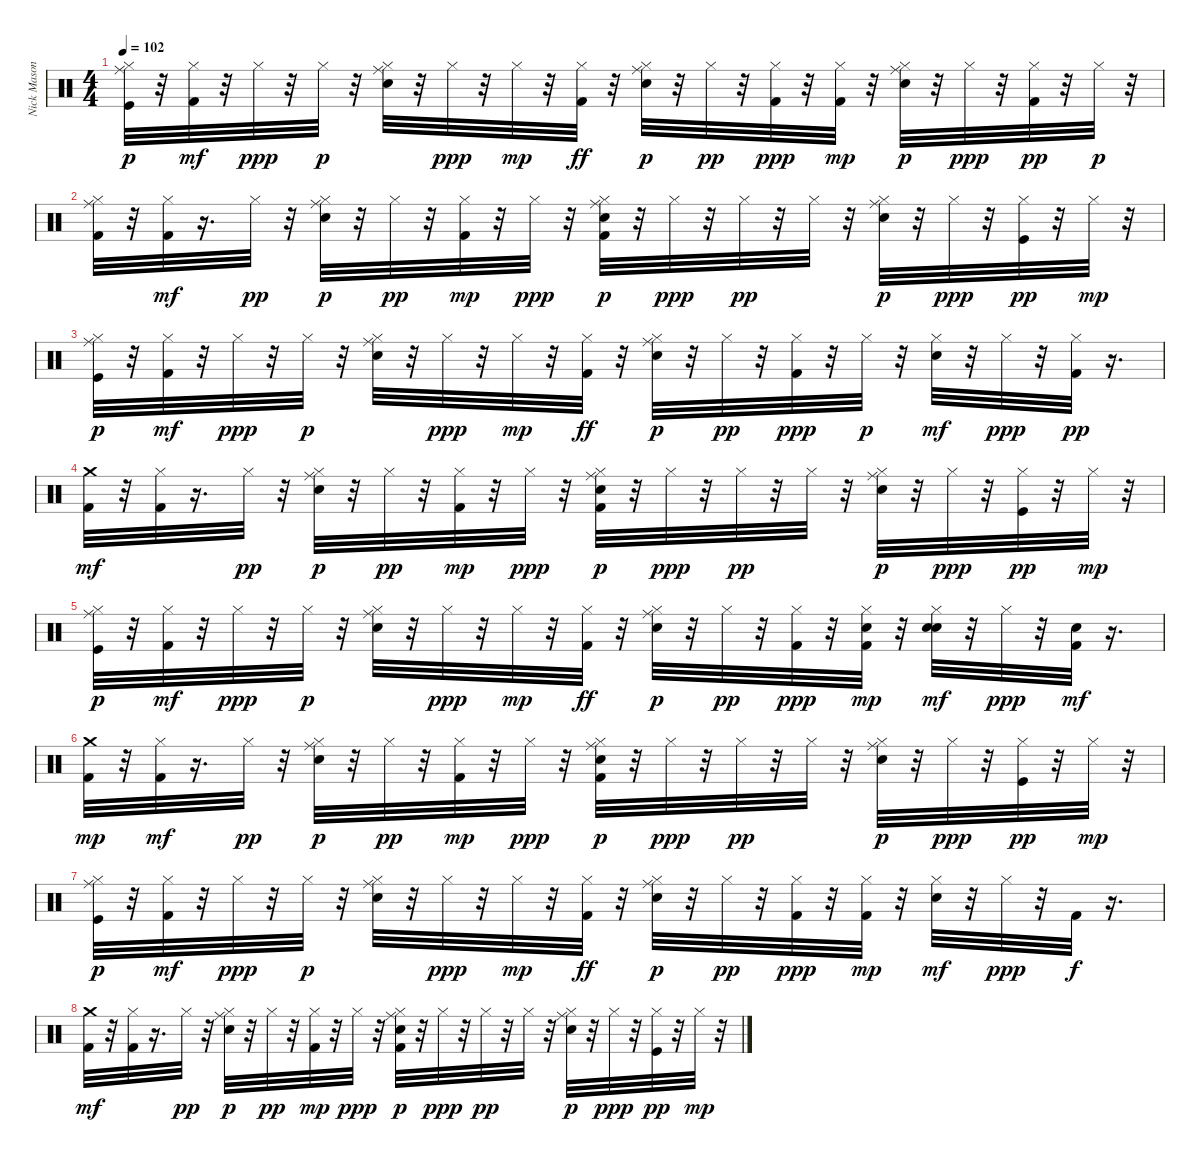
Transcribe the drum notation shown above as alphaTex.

\track ("Nick Mason / Gary Wallis" "Nick Mason") {instrument percussion}
\staff {score}
\articulation defaults
\ts (4 4)
\tempo 102
\clef neutral
\ks c
("Kick (hit)" "Hi-Hat (closed)" "Ride (middle)").32{dy p} r.32 ("Hi-Hat (closed)" "Kick (hit) 2").32{dy mf} r.32 "Hi-Hat (closed)".32{dy ppp} r.32 "Hi-Hat (closed)".32{dy p} r.32 ("Snare (hit) 2" "Hi-Hat (closed)" "Ride (middle)").32 r.32 "Hi-Hat (closed)".32{dy ppp} r.32 "Hi-Hat (closed)".32{dy mp} r.32 ("Hi-Hat (closed)" "Kick (hit) 2").32{dy ff} r.32 ("Electric Snare (hit)" "Hi-Hat (closed)" "Ride (middle)").32{dy p} r.32 "Hi-Hat (closed)".32{dy pp} r.32 ("Hi-Hat (closed)" "Kick (hit) 2").32{dy ppp} r.32 ("Hi-Hat (closed)" "Kick (hit) 2").32{dy mp} r.32 ("Snare (hit) 2" "Hi-Hat (closed)" "Ride (middle)").32{dy p} r.32 "Hi-Hat (closed)".32{dy ppp} r.32 ("Kick (hit) 2" "Hi-Hat (closed)").32{dy pp} r.32 "Hi-Hat (closed)".32{dy p} r.32 |
("Kick (hit) 2" "Hi-Hat (closed)" "Ride (middle)").32 r.32 ("Hi-Hat (closed)" "Kick (hit) 2").32{dy mf} r.16{d} "Hi-Hat (closed)".32{dy pp} r.32 ("Snare (hit) 2" "Hi-Hat (closed)" "Ride (middle)").32{dy p} r.32 "Hi-Hat (closed)".32{dy pp} r.32 ("Kick (hit) 2" "Hi-Hat (closed)").32{dy mp} r.32 "Hi-Hat (closed)".32{dy ppp} r.32 ("Kick (hit) 2" "Electric Snare (hit)" "Hi-Hat (closed)" "Ride (middle)").32{dy p} r.32 "Hi-Hat (closed)".32{dy ppp} r.32 "Hi-Hat (closed)".32{dy pp} r.32 "Hi-Hat (closed)".32 r.32 ("Snare (hit) 2" "Hi-Hat (closed)" "Ride (middle)").32{dy p} r.32 "Hi-Hat (closed)".32{dy ppp} r.32 ("Kick (hit)" "Hi-Hat (closed)").32{dy pp} r.32 "Hi-Hat (closed)".32{dy mp} r.32 |
("Kick (hit)" "Hi-Hat (closed)" "Ride (middle)").32{dy p} r.32 ("Hi-Hat (closed)" "Kick (hit) 2").32{dy mf} r.32 "Hi-Hat (closed)".32{dy ppp} r.32 "Hi-Hat (closed)".32{dy p} r.32 ("Snare (hit) 2" "Hi-Hat (closed)" "Ride (middle)").32 r.32 "Hi-Hat (closed)".32{dy ppp} r.32 "Hi-Hat (closed)".32{dy mp} r.32 ("Hi-Hat (closed)" "Kick (hit) 2").32{dy ff} r.32 ("Electric Snare (hit)" "Hi-Hat (closed)" "Ride (middle)").32{dy p} r.32 "Hi-Hat (closed)".32{dy pp} r.32 ("Hi-Hat (closed)" "Kick (hit) 2").32{dy ppp} r.32 "Hi-Hat (closed)".32{dy p} r.32 ("Snare (hit) 2" "Hi-Hat (closed)").32{dy mf} r.32 "Hi-Hat (closed)".32{dy ppp} r.32 ("Kick (hit) 2" "Hi-Hat (closed)").32{dy pp} r.16{d} |
("Kick (hit) 2" "Crash medium (hit)").32{dy mf} r.32 ("Hi-Hat (closed)" "Kick (hit) 2").32 r.16{d} "Hi-Hat (closed)".32{dy pp} r.32 ("Snare (hit) 2" "Hi-Hat (closed)" "Ride (middle)").32{dy p} r.32 "Hi-Hat (closed)".32{dy pp} r.32 ("Kick (hit) 2" "Hi-Hat (closed)").32{dy mp} r.32 "Hi-Hat (closed)".32{dy ppp} r.32 ("Kick (hit) 2" "Electric Snare (hit)" "Hi-Hat (closed)" "Ride (middle)").32{dy p} r.32 "Hi-Hat (closed)".32{dy ppp} r.32 "Hi-Hat (closed)".32{dy pp} r.32 "Hi-Hat (closed)".32 r.32 ("Snare (hit) 2" "Hi-Hat (closed)" "Ride (middle)").32{dy p} r.32 "Hi-Hat (closed)".32{dy ppp} r.32 ("Kick (hit)" "Hi-Hat (closed)").32{dy pp} r.32 "Hi-Hat (closed)".32{dy mp} r.32 |
("Kick (hit)" "Hi-Hat (closed)" "Ride (middle)").32{dy p} r.32 ("Hi-Hat (closed)" "Kick (hit) 2").32{dy mf} r.32 "Hi-Hat (closed)".32{dy ppp} r.32 "Hi-Hat (closed)".32{dy p} r.32 ("Snare (hit) 2" "Hi-Hat (closed)" "Ride (middle)").32 r.32 "Hi-Hat (closed)".32{dy ppp} r.32 "Hi-Hat (closed)".32{dy mp} r.32 ("Hi-Hat (closed)" "Kick (hit) 2").32{dy ff} r.32 ("Electric Snare (hit)" "Hi-Hat (closed)" "Ride (middle)").32{dy p} r.32 "Hi-Hat (closed)".32{dy pp} r.32 ("Hi-Hat (closed)" "Kick (hit) 2").32{dy ppp} r.32 ("Electric Snare (hit)" "Hi-Hat (closed)" "Kick (hit) 2").32{dy mp} r.32 ("Snare (hit) 2" "Electric Snare (hit)" "Hi-Hat (closed)").32{dy mf} r.32 "Hi-Hat (closed)".32{dy ppp} r.32 ("Kick (hit) 2" "Electric Snare (hit)").32{dy mf} r.16{d} |
("Kick (hit) 2" "Crash medium (hit)").32{dy mp} r.32 ("Hi-Hat (closed)" "Kick (hit) 2").32{dy mf} r.16{d} "Hi-Hat (closed)".32{dy pp} r.32 ("Snare (hit) 2" "Hi-Hat (closed)" "Ride (middle)").32{dy p} r.32 "Hi-Hat (closed)".32{dy pp} r.32 ("Kick (hit) 2" "Hi-Hat (closed)").32{dy mp} r.32 "Hi-Hat (closed)".32{dy ppp} r.32 ("Kick (hit) 2" "Electric Snare (hit)" "Hi-Hat (closed)" "Ride (middle)").32{dy p} r.32 "Hi-Hat (closed)".32{dy ppp} r.32 "Hi-Hat (closed)".32{dy pp} r.32 "Hi-Hat (closed)".32 r.32 ("Snare (hit) 2" "Hi-Hat (closed)" "Ride (middle)").32{dy p} r.32 "Hi-Hat (closed)".32{dy ppp} r.32 ("Kick (hit)" "Hi-Hat (closed)").32{dy pp} r.32 "Hi-Hat (closed)".32{dy mp} r.32 |
("Kick (hit)" "Hi-Hat (closed)" "Ride (middle)").32{dy p} r.32 ("Hi-Hat (closed)" "Kick (hit) 2").32{dy mf} r.32 "Hi-Hat (closed)".32{dy ppp} r.32 "Hi-Hat (closed)".32{dy p} r.32 ("Snare (hit) 2" "Hi-Hat (closed)" "Ride (middle)").32 r.32 "Hi-Hat (closed)".32{dy ppp} r.32 "Hi-Hat (closed)".32{dy mp} r.32 ("Hi-Hat (closed)" "Kick (hit) 2").32{dy ff} r.32 ("Electric Snare (hit)" "Hi-Hat (closed)" "Ride (middle)").32{dy p} r.32 "Hi-Hat (closed)".32{dy pp} r.32 ("Hi-Hat (closed)" "Kick (hit) 2").32{dy ppp} r.32 ("Hi-Hat (closed)" "Kick (hit) 2").32{dy mp} r.32 ("Snare (hit) 2" "Hi-Hat (closed)").32{dy mf} r.32 "Hi-Hat (closed)".32{dy ppp} r.32 "Kick (hit) 2".32{dy f} r.16{d} |
("Kick (hit) 2" "Crash medium (hit)").32{dy mf} r.32 ("Hi-Hat (closed)" "Kick (hit) 2").32 r.16{d} "Hi-Hat (closed)".32{dy pp} r.32 ("Snare (hit) 2" "Hi-Hat (closed)" "Ride (middle)").32{dy p} r.32 "Hi-Hat (closed)".32{dy pp} r.32 ("Kick (hit) 2" "Hi-Hat (closed)").32{dy mp} r.32 "Hi-Hat (closed)".32{dy ppp} r.32 ("Kick (hit) 2" "Electric Snare (hit)" "Hi-Hat (closed)" "Ride (middle)").32{dy p} r.32 "Hi-Hat (closed)".32{dy ppp} r.32 "Hi-Hat (closed)".32{dy pp} r.32 "Hi-Hat (closed)".32 r.32 ("Snare (hit) 2" "Hi-Hat (closed)" "Ride (middle)").32{dy p} r.32 "Hi-Hat (closed)".32{dy ppp} r.32 ("Kick (hit)" "Hi-Hat (closed)").32{dy pp} r.32 "Hi-Hat (closed)".32{dy mp} r.32
